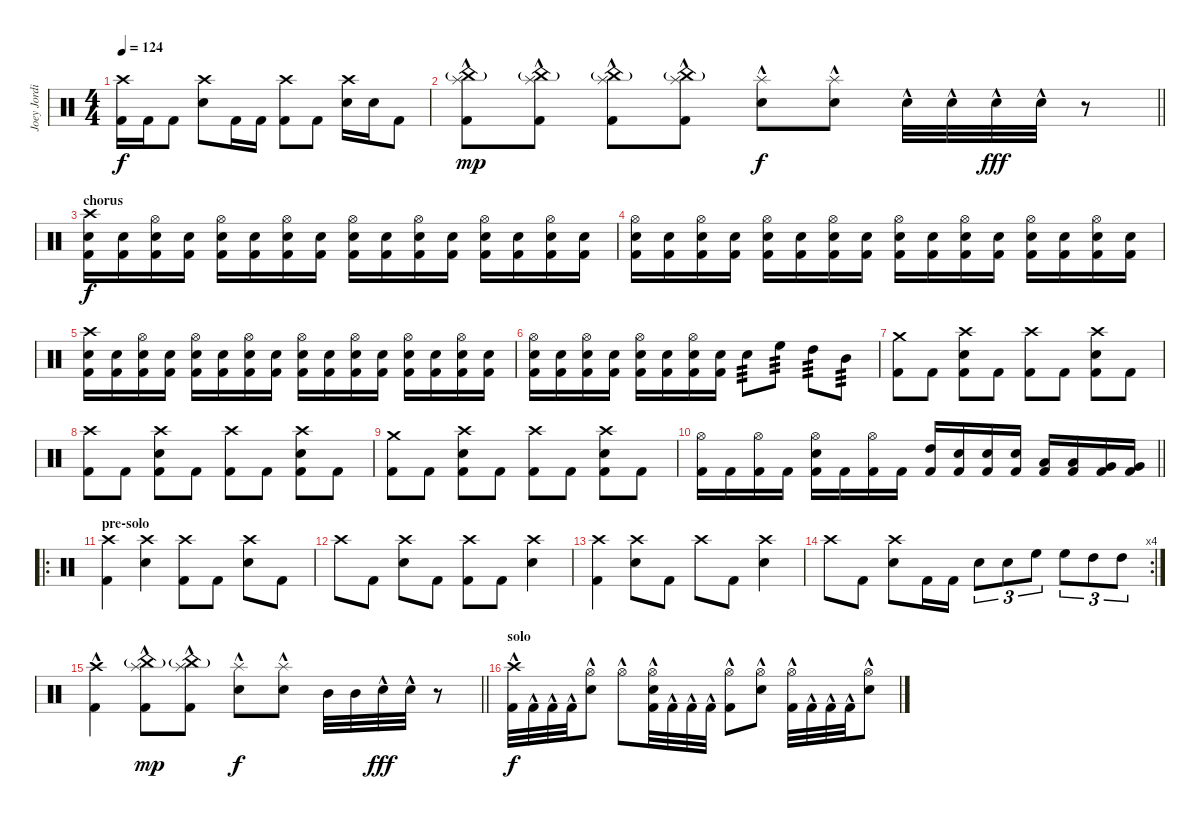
\track ("Joey Jordison" "Joey Jordi") {instrument percussion}
\staff
\articulation defaults
\ts (4 4)
\tempo 124
\clef neutral
\ks c
("Crash high (hit)" "Kick (hit) 2").16{dy f} "Kick (hit) 2".16 "Kick (hit) 2".8 ("Crash high (hit)" "Electric Snare (hit)").8 "Kick (hit) 2".16 "Kick (hit) 2".16 ("Crash high (hit)" "Kick (hit) 2").8 "Kick (hit) 2".8 ("Crash high (hit)" "Electric Snare (hit)").16 "Electric Snare (hit)".16 "Kick (hit) 2".8 |
\barLineRight lightlight
("China (hit)"{g} "Splash (hit)" "Kick (hit) 2"{hac}).8{dy mp} ("China (hit)"{g} "Splash (hit)" "Kick (hit) 2"{hac}).8 ("China (hit)"{g} "Splash (hit)" "Kick (hit) 2"{hac}).8 ("China (hit)"{g} "Splash (hit)" "Kick (hit) 2"{hac}).8 ("Splash (hit)"{hac} "Electric Snare (hit)"{hac}).8{dy f} ("Splash (hit)"{hac} "Electric Snare (hit)"{hac}).8 "Electric Snare (hit)"{hac}.32 "Electric Snare (hit)"{hac}.32 "Electric Snare (hit)"{hac}.32{dy fff} "Electric Snare (hit)"{hac}.32 r.8 |
\section ("" "chorus")
("Crash high (hit)" "Electric Snare (hit)" "Kick (hit) 2").16{dy f} ("Electric Snare (hit)" "Kick (hit) 2").16 ("Hi-Hat (open)" "Electric Snare (hit)" "Kick (hit) 2").16 ("Electric Snare (hit)" "Kick (hit) 2").16 ("Hi-Hat (open)" "Electric Snare (hit)" "Kick (hit) 2").16 ("Electric Snare (hit)" "Kick (hit) 2").16 ("Hi-Hat (open)" "Electric Snare (hit)" "Kick (hit) 2").16 ("Electric Snare (hit)" "Kick (hit) 2").16 ("Hi-Hat (open)" "Electric Snare (hit)" "Kick (hit) 2").16 ("Electric Snare (hit)" "Kick (hit) 2").16 ("Hi-Hat (open)" "Electric Snare (hit)" "Kick (hit) 2").16 ("Electric Snare (hit)" "Kick (hit) 2").16 ("Hi-Hat (open)" "Electric Snare (hit)" "Kick (hit) 2").16 ("Electric Snare (hit)" "Kick (hit) 2").16 ("Hi-Hat (open)" "Electric Snare (hit)" "Kick (hit) 2").16 ("Electric Snare (hit)" "Kick (hit) 2").16 |
("Hi-Hat (open)" "Electric Snare (hit)" "Kick (hit) 2").16 ("Electric Snare (hit)" "Kick (hit) 2").16 ("Hi-Hat (open)" "Electric Snare (hit)" "Kick (hit) 2").16 ("Electric Snare (hit)" "Kick (hit) 2").16 ("Hi-Hat (open)" "Electric Snare (hit)" "Kick (hit) 2").16 ("Electric Snare (hit)" "Kick (hit) 2").16 ("Hi-Hat (open)" "Electric Snare (hit)" "Kick (hit) 2").16 ("Electric Snare (hit)" "Kick (hit) 2").16 ("Hi-Hat (open)" "Electric Snare (hit)" "Kick (hit) 2").16 ("Electric Snare (hit)" "Kick (hit) 2").16 ("Hi-Hat (open)" "Electric Snare (hit)" "Kick (hit) 2").16 ("Electric Snare (hit)" "Kick (hit) 2").16 ("Hi-Hat (open)" "Electric Snare (hit)" "Kick (hit) 2").16 ("Electric Snare (hit)" "Kick (hit) 2").16 ("Hi-Hat (open)" "Electric Snare (hit)" "Kick (hit) 2").16 ("Electric Snare (hit)" "Kick (hit) 2").16 |
("Crash high (hit)" "Electric Snare (hit)" "Kick (hit) 2").16 ("Electric Snare (hit)" "Kick (hit) 2").16 ("Hi-Hat (open)" "Electric Snare (hit)" "Kick (hit) 2").16 ("Electric Snare (hit)" "Kick (hit) 2").16 ("Hi-Hat (open)" "Electric Snare (hit)" "Kick (hit) 2").16 ("Electric Snare (hit)" "Kick (hit) 2").16 ("Hi-Hat (open)" "Electric Snare (hit)" "Kick (hit) 2").16 ("Electric Snare (hit)" "Kick (hit) 2").16 ("Hi-Hat (open)" "Electric Snare (hit)" "Kick (hit) 2").16 ("Electric Snare (hit)" "Kick (hit) 2").16 ("Hi-Hat (open)" "Electric Snare (hit)" "Kick (hit) 2").16 ("Electric Snare (hit)" "Kick (hit) 2").16 ("Hi-Hat (open)" "Electric Snare (hit)" "Kick (hit) 2").16 ("Electric Snare (hit)" "Kick (hit) 2").16 ("Hi-Hat (open)" "Electric Snare (hit)" "Kick (hit) 2").16 ("Electric Snare (hit)" "Kick (hit) 2").16 |
("Hi-Hat (open)" "Electric Snare (hit)" "Kick (hit) 2").16 ("Electric Snare (hit)" "Kick (hit) 2").16 ("Hi-Hat (open)" "Electric Snare (hit)" "Kick (hit) 2").16 ("Electric Snare (hit)" "Kick (hit) 2").16 ("Hi-Hat (open)" "Electric Snare (hit)" "Kick (hit) 2").16 ("Electric Snare (hit)" "Kick (hit) 2").16 ("Hi-Hat (open)" "Electric Snare (hit)" "Kick (hit) 2").16 ("Electric Snare (hit)" "Kick (hit) 2").16 "Electric Snare (hit)".8{tp 3} "High Floor Tom (hit)".8{tp 3} "High Tom (hit)".8{tp 3} "Mid Tom (hit)".8{tp 3} |
("Crash medium (hit)" "Kick (hit) 2").8 "Kick (hit) 2".8 ("Crash high (hit)" "Electric Snare (hit)" "Kick (hit) 2").8 "Kick (hit) 2".8 ("Crash high (hit)" "Kick (hit) 2").8 "Kick (hit) 2".8 ("Crash high (hit)" "Electric Snare (hit)" "Kick (hit) 2").8 "Kick (hit) 2".8 |
("Crash high (hit)" "Kick (hit) 2").8 "Kick (hit) 2".8 ("Crash high (hit)" "Electric Snare (hit)" "Kick (hit) 2").8 "Kick (hit) 2".8 ("Crash high (hit)" "Kick (hit) 2").8 "Kick (hit) 2".8 ("Crash high (hit)" "Electric Snare (hit)" "Kick (hit) 2").8 "Kick (hit) 2".8 |
("Crash medium (hit)" "Kick (hit) 2").8 "Kick (hit) 2".8 ("Crash high (hit)" "Electric Snare (hit)" "Kick (hit) 2").8 "Kick (hit) 2".8 ("Crash high (hit)" "Kick (hit) 2").8 "Kick (hit) 2".8 ("Crash high (hit)" "Electric Snare (hit)" "Kick (hit) 2").8 "Kick (hit) 2".8 |
\barLineRight lightlight
("Hi-Hat (open)" "Kick (hit) 2").16 "Kick (hit) 2".16 ("Hi-Hat (open)" "Kick (hit) 2").16 "Kick (hit) 2".16 ("Hi-Hat (open)" "Electric Snare (hit)" "Kick (hit) 2").16 "Kick (hit) 2".16 ("Hi-Hat (open)" "Kick (hit) 2").16 "Kick (hit) 2".16 ("High Tom (hit)" "Kick (hit) 2").16 ("Electric Snare (hit)" "Kick (hit) 2").16 ("Electric Snare (hit)" "Kick (hit) 2").16 ("Electric Snare (hit)" "Kick (hit) 2").16 ("Low Tom (hit)" "Kick (hit) 2").16 ("Low Tom (hit)" "Kick (hit) 2").16 ("Very Low Tom (hit)" "Kick (hit) 2").16 ("Very Low Tom (hit)" "Kick (hit) 2").16 |
\ro
\section ("" "pre-solo")
("Crash high (hit)" "Kick (hit) 2").4 ("Crash high (hit)" "Electric Snare (hit)").4 ("Crash high (hit)" "Kick (hit) 2").8 "Kick (hit) 2".8 ("Crash high (hit)" "Electric Snare (hit)").8 "Kick (hit) 2".8 |
"Crash high (hit)".8 "Kick (hit) 2".8 ("Crash high (hit)" "Electric Snare (hit)").8 "Kick (hit) 2".8 ("Crash high (hit)" "Kick (hit) 2").8 "Kick (hit) 2".8 ("Crash high (hit)" "Electric Snare (hit)").4 |
("Crash high (hit)" "Kick (hit) 2").4 ("Crash high (hit)" "Electric Snare (hit)").8 "Kick (hit) 2".8 "Crash high (hit)".8 "Kick (hit) 2".8 ("Crash high (hit)" "Electric Snare (hit)").4 |
\rc 4 "Crash high (hit)".8 "Kick (hit) 2".8
("Crash high (hit)" "Electric Snare (hit)").8 "Kick (hit) 2".16 "Kick (hit) 2".16 "Electric Snare (hit)".8{tu (3 2)} "Electric Snare (hit)".8{tu (3 2)} "High Floor Tom (hit)".8{tu (3 2)} "High Floor Tom (hit)".8{tu (3 2)} "High Tom (hit)".8{tu (3 2)} "High Tom (hit)".8{tu (3 2)} |
\barLineRight lightlight
("Crash high (hit)" "Kick (hit) 2"{hac}).4 ("China (hit)"{g} "Splash (hit)" "Kick (hit) 2"{hac}).8{dy mp} ("China (hit)"{g} "Splash (hit)" "Kick (hit) 2"{hac}).8 ("Splash (hit)"{hac} "Electric Snare (hit)"{hac}).8{dy f} ("Splash (hit)"{hac} "Electric Snare (hit)"{hac}).8 "Mid Tom (hit)".32 "Mid Tom (hit)".32 "Electric Snare (hit)"{hac}.32{dy fff} "Electric Snare (hit)"{hac}.32 r.8 |
\section ("" "solo")
("Crash high (hit)"{hac} "Kick (hit) 2"{hac}).32{dy f} "Kick (hit) 2"{hac}.32 "Kick (hit) 2"{hac}.32 "Kick (hit) 2"{hac}.32 ("Hi-Hat (open)"{hac} "Electric Snare (hit)"{hac}).8 "Hi-Hat (open)"{hac}.8 ("Hi-Hat (open)"{hac} "Electric Snare (hit)"{hac} "Kick (hit) 2"{hac}).32 "Kick (hit) 2"{hac}.32 "Kick (hit) 2"{hac}.32 "Kick (hit) 2"{hac}.32 ("Hi-Hat (open)"{hac} "Kick (hit) 2"{hac}).8 ("Hi-Hat (open)"{hac} "Electric Snare (hit)"{hac}).8 ("Hi-Hat (open)"{hac} "Kick (hit) 2"{hac}).32 "Kick (hit) 2"{hac}.32 "Kick (hit) 2"{hac}.32 "Kick (hit) 2"{hac}.32 ("Hi-Hat (open)"{hac} "Electric Snare (hit)"{hac}).8
